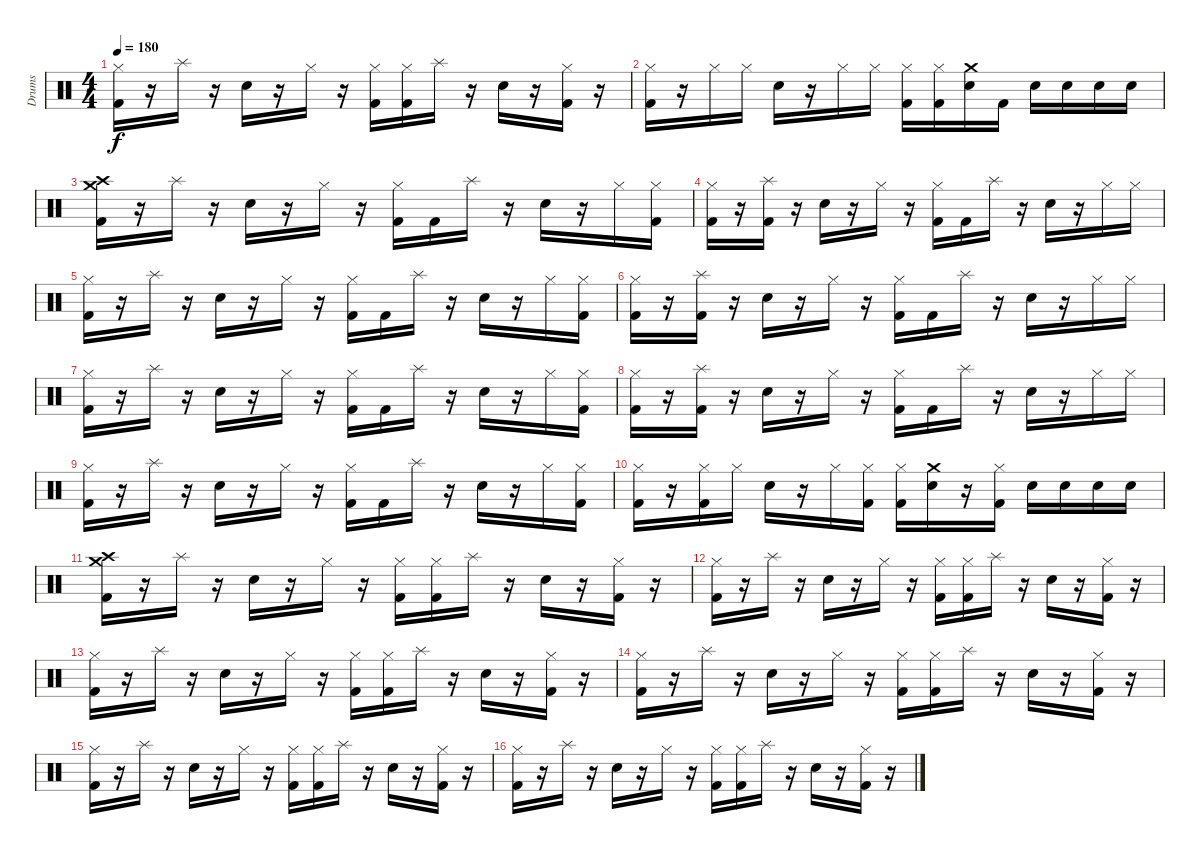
\track ("Drums" "Drums") {instrument percussion}
\staff {score}
\articulation defaults
\ts (4 4)
\tempo 180
\clef neutral
\ks c
("Hi-Hat (closed)" "Kick (hit) 2").16{dy f} r.16 "Splash (hit)".16 r.16 "Snare (hit) 2".16 r.16 "Hi-Hat (closed)".16 r.16 ("Hi-Hat (closed)" "Kick (hit) 2").16 ("Hi-Hat (closed)" "Kick (hit) 2").16 "Splash (hit)".16 r.16 "Snare (hit) 2".16 r.16 ("Hi-Hat (closed)" "Kick (hit) 2").16 r.16 |
("Hi-Hat (closed)" "Kick (hit) 2").16 r.16 "Hi-Hat (closed)".16 "Hi-Hat (closed)".16 "Snare (hit) 2".16 r.16 "Hi-Hat (closed)".16 "Hi-Hat (closed)".16 ("Hi-Hat (closed)" "Kick (hit) 2").16 ("Hi-Hat (closed)" "Kick (hit) 2").16 ("Crash medium (hit)" "Snare (hit) 2").16 "Kick (hit) 2".16 "Snare (hit) 2".16 "Snare (hit) 2".16 "Snare (hit) 2".16 "Snare (hit) 2".16 |
("Crash medium (hit)" "Crash high (hit)" "Kick (hit) 2").16 r.16 "Splash (hit)".16 r.16 "Snare (hit) 2".16 r.16 "Hi-Hat (closed)".16 r.16 ("Hi-Hat (closed)" "Kick (hit) 2").16 "Kick (hit) 2".16 "Splash (hit)".16 r.16 "Snare (hit) 2".16 r.16 "Hi-Hat (closed)".16 ("Hi-Hat (closed)" "Kick (hit) 2").16 |
("Hi-Hat (closed)" "Kick (hit) 2").16 r.16 ("Splash (hit)" "Kick (hit) 2").16 r.16 "Snare (hit) 2".16 r.16 "Hi-Hat (closed)".16 r.16 ("Hi-Hat (closed)" "Kick (hit) 2").16 "Kick (hit) 2".16 "Splash (hit)".16 r.16 "Snare (hit) 2".16 r.16 "Hi-Hat (closed)".16 "Hi-Hat (closed)".16 |
("Hi-Hat (closed)" "Kick (hit) 2").16 r.16 "Splash (hit)".16 r.16 "Snare (hit) 2".16 r.16 "Hi-Hat (closed)".16 r.16 ("Hi-Hat (closed)" "Kick (hit) 2").16 "Kick (hit) 2".16 "Splash (hit)".16 r.16 "Snare (hit) 2".16 r.16 "Hi-Hat (closed)".16 ("Hi-Hat (closed)" "Kick (hit) 2").16 |
("Hi-Hat (closed)" "Kick (hit) 2").16 r.16 ("Splash (hit)" "Kick (hit) 2").16 r.16 "Snare (hit) 2".16 r.16 "Hi-Hat (closed)".16 r.16 ("Hi-Hat (closed)" "Kick (hit) 2").16 "Kick (hit) 2".16 "Splash (hit)".16 r.16 "Snare (hit) 2".16 r.16 "Hi-Hat (closed)".16 "Hi-Hat (closed)".16 |
("Hi-Hat (closed)" "Kick (hit) 2").16 r.16 "Splash (hit)".16 r.16 "Snare (hit) 2".16 r.16 "Hi-Hat (closed)".16 r.16 ("Hi-Hat (closed)" "Kick (hit) 2").16 "Kick (hit) 2".16 "Splash (hit)".16 r.16 "Snare (hit) 2".16 r.16 "Hi-Hat (closed)".16 ("Hi-Hat (closed)" "Kick (hit) 2").16 |
("Hi-Hat (closed)" "Kick (hit) 2").16 r.16 ("Splash (hit)" "Kick (hit) 2").16 r.16 "Snare (hit) 2".16 r.16 "Hi-Hat (closed)".16 r.16 ("Hi-Hat (closed)" "Kick (hit) 2").16 "Kick (hit) 2".16 "Splash (hit)".16 r.16 "Snare (hit) 2".16 r.16 "Hi-Hat (closed)".16 "Hi-Hat (closed)".16 |
("Hi-Hat (closed)" "Kick (hit) 2").16 r.16 "Splash (hit)".16 r.16 "Snare (hit) 2".16 r.16 "Hi-Hat (closed)".16 r.16 ("Hi-Hat (closed)" "Kick (hit) 2").16 "Kick (hit) 2".16 "Splash (hit)".16 r.16 "Snare (hit) 2".16 r.16 "Hi-Hat (closed)".16 ("Hi-Hat (closed)" "Kick (hit) 2").16 |
("Hi-Hat (closed)" "Kick (hit) 2").16 r.16 ("Hi-Hat (closed)" "Kick (hit) 2").16 "Hi-Hat (closed)".16 "Snare (hit) 2".16 r.16 "Hi-Hat (closed)".16 ("Hi-Hat (closed)" "Kick (hit) 2").16 ("Hi-Hat (closed)" "Kick (hit) 2").16 ("Crash medium (hit)" "Snare (hit) 2").16 r.16 ("Hi-Hat (closed)" "Kick (hit) 2").16 "Snare (hit) 2".16 "Snare (hit) 2".16 "Snare (hit) 2".16 "Snare (hit) 2".16 |
("Crash medium (hit)" "Crash high (hit)" "Kick (hit) 2").16 r.16 "Splash (hit)".16 r.16 "Snare (hit) 2".16 r.16 "Hi-Hat (closed)".16 r.16 ("Hi-Hat (closed)" "Kick (hit) 2").16 ("Hi-Hat (closed)" "Kick (hit) 2").16 "Splash (hit)".16 r.16 "Snare (hit) 2".16 r.16 ("Hi-Hat (closed)" "Kick (hit) 2").16 r.16 |
("Hi-Hat (closed)" "Kick (hit) 2").16 r.16 "Splash (hit)".16 r.16 "Snare (hit) 2".16 r.16 "Hi-Hat (closed)".16 r.16 ("Hi-Hat (closed)" "Kick (hit) 2").16 ("Hi-Hat (closed)" "Kick (hit) 2").16 "Splash (hit)".16 r.16 "Snare (hit) 2".16 r.16 ("Hi-Hat (closed)" "Kick (hit) 2").16 r.16 |
("Hi-Hat (closed)" "Kick (hit) 2").16 r.16 "Splash (hit)".16 r.16 "Snare (hit) 2".16 r.16 "Hi-Hat (closed)".16 r.16 ("Hi-Hat (closed)" "Kick (hit) 2").16 ("Hi-Hat (closed)" "Kick (hit) 2").16 "Splash (hit)".16 r.16 "Snare (hit) 2".16 r.16 ("Hi-Hat (closed)" "Kick (hit) 2").16 r.16 |
("Hi-Hat (closed)" "Kick (hit) 2").16 r.16 "Splash (hit)".16 r.16 "Snare (hit) 2".16 r.16 "Hi-Hat (closed)".16 r.16 ("Hi-Hat (closed)" "Kick (hit) 2").16 ("Hi-Hat (closed)" "Kick (hit) 2").16 "Splash (hit)".16 r.16 "Snare (hit) 2".16 r.16 ("Hi-Hat (closed)" "Kick (hit) 2").16 r.16 |
("Hi-Hat (closed)" "Kick (hit) 2").16 r.16 "Splash (hit)".16 r.16 "Snare (hit) 2".16 r.16 "Hi-Hat (closed)".16 r.16 ("Hi-Hat (closed)" "Kick (hit) 2").16 ("Hi-Hat (closed)" "Kick (hit) 2").16 "Splash (hit)".16 r.16 "Snare (hit) 2".16 r.16 ("Hi-Hat (closed)" "Kick (hit) 2").16 r.16 |
("Hi-Hat (closed)" "Kick (hit) 2").16 r.16 "Splash (hit)".16 r.16 "Snare (hit) 2".16 r.16 "Hi-Hat (closed)".16 r.16 ("Hi-Hat (closed)" "Kick (hit) 2").16 ("Hi-Hat (closed)" "Kick (hit) 2").16 "Splash (hit)".16 r.16 "Snare (hit) 2".16 r.16 ("Hi-Hat (closed)" "Kick (hit) 2").16 r.16
